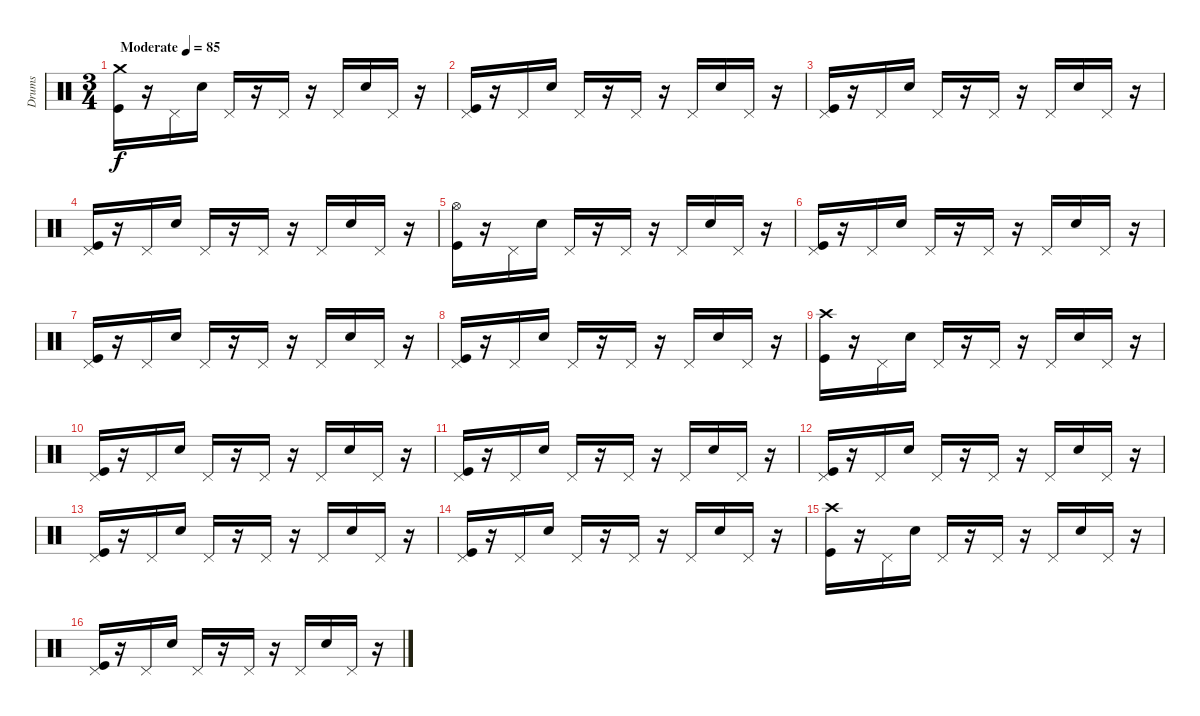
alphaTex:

\track ("Drums" "Drums") {instrument percussion}
\staff {score}
\articulation defaults
\ts (3 4)
\tempo (85 "Moderate")
\clef neutral
\ks c
("Crash medium (hit)" "Kick (hit)").16{dy f} r.16 "Pedal Hi-Hat (hit)".16 "Electric Snare (hit)".16 "Pedal Hi-Hat (hit)".16 r.16 "Pedal Hi-Hat (hit)".16 r.16 "Pedal Hi-Hat (hit)".16 "Electric Snare (hit)".16 "Pedal Hi-Hat (hit)".16 r.16 |
("Pedal Hi-Hat (hit)" "Kick (hit)").16 r.16 "Pedal Hi-Hat (hit)".16 "Electric Snare (hit)".16 "Pedal Hi-Hat (hit)".16 r.16 "Pedal Hi-Hat (hit)".16 r.16 "Pedal Hi-Hat (hit)".16 "Electric Snare (hit)".16 "Pedal Hi-Hat (hit)".16 r.16 |
("Pedal Hi-Hat (hit)" "Kick (hit)").16 r.16 "Pedal Hi-Hat (hit)".16 "Electric Snare (hit)".16 "Pedal Hi-Hat (hit)".16 r.16 "Pedal Hi-Hat (hit)".16 r.16 "Pedal Hi-Hat (hit)".16 "Electric Snare (hit)".16 "Pedal Hi-Hat (hit)".16 r.16 |
("Pedal Hi-Hat (hit)" "Kick (hit)").16 r.16 "Pedal Hi-Hat (hit)".16 "Electric Snare (hit)".16 "Pedal Hi-Hat (hit)".16 r.16 "Pedal Hi-Hat (hit)".16 r.16 "Pedal Hi-Hat (hit)".16 "Electric Snare (hit)".16 "Pedal Hi-Hat (hit)".16 r.16 |
("Hi-Hat (open)" "Kick (hit)").16 r.16 "Pedal Hi-Hat (hit)".16 "Electric Snare (hit)".16 "Pedal Hi-Hat (hit)".16 r.16 "Pedal Hi-Hat (hit)".16 r.16 "Pedal Hi-Hat (hit)".16 "Electric Snare (hit)".16 "Pedal Hi-Hat (hit)".16 r.16 |
("Pedal Hi-Hat (hit)" "Kick (hit)").16 r.16 "Pedal Hi-Hat (hit)".16 "Electric Snare (hit)".16 "Pedal Hi-Hat (hit)".16 r.16 "Pedal Hi-Hat (hit)".16 r.16 "Pedal Hi-Hat (hit)".16 "Electric Snare (hit)".16 "Pedal Hi-Hat (hit)".16 r.16 |
("Pedal Hi-Hat (hit)" "Kick (hit)").16 r.16 "Pedal Hi-Hat (hit)".16 "Electric Snare (hit)".16 "Pedal Hi-Hat (hit)".16 r.16 "Pedal Hi-Hat (hit)".16 r.16 "Pedal Hi-Hat (hit)".16 "Electric Snare (hit)".16 "Pedal Hi-Hat (hit)".16 r.16 |
("Pedal Hi-Hat (hit)" "Kick (hit)").16 r.16 "Pedal Hi-Hat (hit)".16 "Electric Snare (hit)".16 "Pedal Hi-Hat (hit)".16 r.16 "Pedal Hi-Hat (hit)".16 r.16 "Pedal Hi-Hat (hit)".16 "Electric Snare (hit)".16 "Pedal Hi-Hat (hit)".16 r.16 |
("Crash high (hit)" "Kick (hit)").16 r.16 "Pedal Hi-Hat (hit)".16 "Electric Snare (hit)".16 "Pedal Hi-Hat (hit)".16 r.16 "Pedal Hi-Hat (hit)".16 r.16 "Pedal Hi-Hat (hit)".16 "Electric Snare (hit)".16 "Pedal Hi-Hat (hit)".16 r.16 |
("Pedal Hi-Hat (hit)" "Kick (hit)").16 r.16 "Pedal Hi-Hat (hit)".16 "Electric Snare (hit)".16 "Pedal Hi-Hat (hit)".16 r.16 "Pedal Hi-Hat (hit)".16 r.16 "Pedal Hi-Hat (hit)".16 "Electric Snare (hit)".16 "Pedal Hi-Hat (hit)".16 r.16 |
("Pedal Hi-Hat (hit)" "Kick (hit)").16 r.16 "Pedal Hi-Hat (hit)".16 "Electric Snare (hit)".16 "Pedal Hi-Hat (hit)".16 r.16 "Pedal Hi-Hat (hit)".16 r.16 "Pedal Hi-Hat (hit)".16 "Electric Snare (hit)".16 "Pedal Hi-Hat (hit)".16 r.16 |
("Pedal Hi-Hat (hit)" "Kick (hit)").16 r.16 "Pedal Hi-Hat (hit)".16 "Electric Snare (hit)".16 "Pedal Hi-Hat (hit)".16 r.16 "Pedal Hi-Hat (hit)".16 r.16 "Pedal Hi-Hat (hit)".16 "Electric Snare (hit)".16 "Pedal Hi-Hat (hit)".16 r.16 |
("Pedal Hi-Hat (hit)" "Kick (hit)").16 r.16 "Pedal Hi-Hat (hit)".16 "Electric Snare (hit)".16 "Pedal Hi-Hat (hit)".16 r.16 "Pedal Hi-Hat (hit)".16 r.16 "Pedal Hi-Hat (hit)".16 "Electric Snare (hit)".16 "Pedal Hi-Hat (hit)".16 r.16 |
("Pedal Hi-Hat (hit)" "Kick (hit)").16 r.16 "Pedal Hi-Hat (hit)".16 "Electric Snare (hit)".16 "Pedal Hi-Hat (hit)".16 r.16 "Pedal Hi-Hat (hit)".16 r.16 "Pedal Hi-Hat (hit)".16 "Electric Snare (hit)".16 "Pedal Hi-Hat (hit)".16 r.16 |
("Crash high (hit)" "Kick (hit)").16 r.16 "Pedal Hi-Hat (hit)".16 "Electric Snare (hit)".16 "Pedal Hi-Hat (hit)".16 r.16 "Pedal Hi-Hat (hit)".16 r.16 "Pedal Hi-Hat (hit)".16 "Electric Snare (hit)".16 "Pedal Hi-Hat (hit)".16 r.16 |
("Pedal Hi-Hat (hit)" "Kick (hit)").16 r.16 "Pedal Hi-Hat (hit)".16 "Electric Snare (hit)".16 "Pedal Hi-Hat (hit)".16 r.16 "Pedal Hi-Hat (hit)".16 r.16 "Pedal Hi-Hat (hit)".16 "Electric Snare (hit)".16 "Pedal Hi-Hat (hit)".16 r.16
